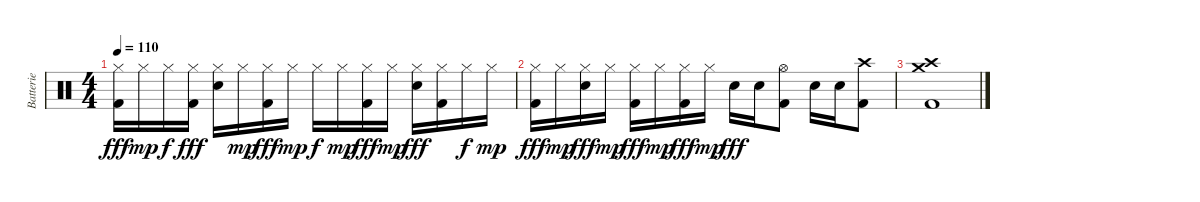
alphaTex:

\track ("Batterie" "Batterie") {instrument percussion}
\staff {score}
\articulation defaults
\ts (4 4)
\tempo 110
\clef neutral
\ks c
("Hi-Hat (closed)" "Kick (hit) 2").16{dy fff} "Hi-Hat (closed)".16{dy mp} "Hi-Hat (closed)".16{dy f} ("Hi-Hat (closed)" "Kick (hit) 2").16{dy fff} ("Hi-Hat (closed)" "Snare (hit) 2").16 "Hi-Hat (closed)".16{dy mp} ("Hi-Hat (closed)" "Kick (hit) 2").16{dy fff} "Hi-Hat (closed)".16{dy mp} "Hi-Hat (closed)".16{dy f} "Hi-Hat (closed)".16{dy mp} ("Hi-Hat (closed)" "Kick (hit) 2").16{dy fff} "Hi-Hat (closed)".16{dy mp} ("Hi-Hat (closed)" "Snare (hit) 2").16{dy fff} ("Hi-Hat (closed)" "Kick (hit) 2").16 "Hi-Hat (closed)".16{dy f} "Hi-Hat (closed)".16{dy mp} |
("Hi-Hat (closed)" "Kick (hit) 2").16{dy fff} "Hi-Hat (closed)".16{dy mp} ("Hi-Hat (closed)" "Snare (hit) 2").16{dy fff} "Hi-Hat (closed)".16{dy mp} ("Hi-Hat (closed)" "Kick (hit) 2").16{dy fff} "Hi-Hat (closed)".16{dy mp} ("Hi-Hat (closed)" "Kick (hit) 2").16{dy fff} "Hi-Hat (closed)".16{dy mp} "Snare (hit) 2".16{dy fff} "Snare (hit) 2".16 ("Hi-Hat (open)" "Kick (hit) 2").8 "Snare (hit) 2".16 "Snare (hit) 2".16 ("Crash high (hit)" "Kick (hit) 2").8 |
("Crash medium (hit)" "Crash high (hit)" "Kick (hit) 2").1
